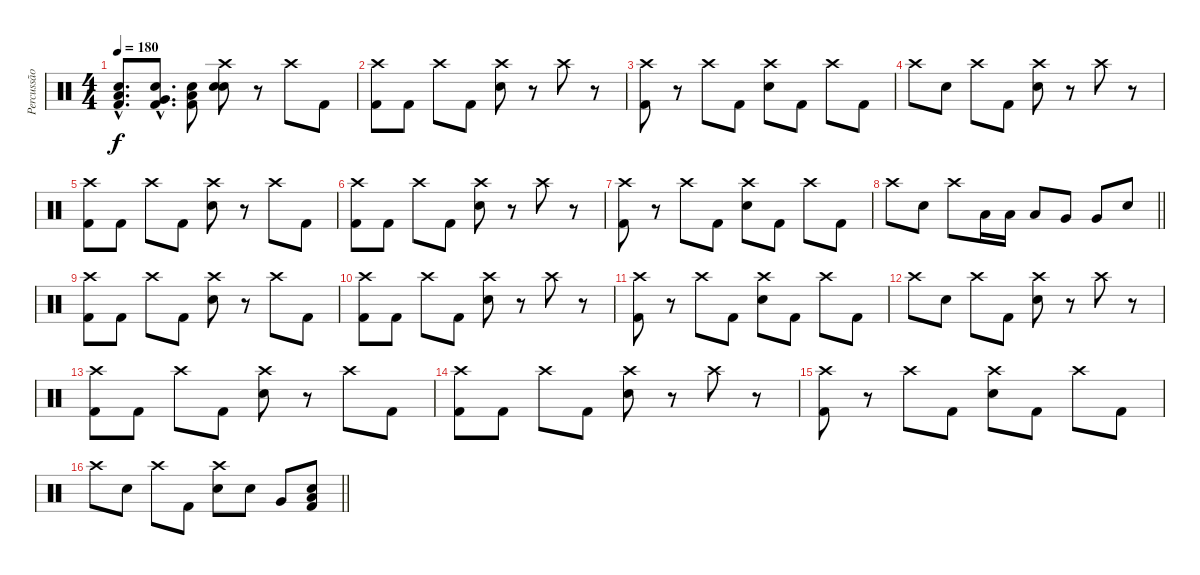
\track ("Percussão" "Percussão") {instrument percussion}
\staff {score}
\articulation defaults
\ts (4 4)
\tempo 180
\clef neutral
\ks c
("Low Tom (hit)"{hac} "Electric Snare (hit)"{hac} "Kick (hit) 2"{hac}).8{d dy f} ("Very Low Tom (hit)"{hac} "Electric Snare (hit)"{hac} "Kick (hit) 2"{hac}).8{d} ("Low Floor Tom (hit)" "Electric Snare (hit)" "Kick (hit) 2").8 ("Crash high (hit)" "Electric Snare (hit)" "Electric Snare (hit)").8 r.8 "Crash high (hit)".8 "Kick (hit) 2".8 |
("Crash high (hit)" "Kick (hit) 2").8 "Kick (hit) 2".8 "Crash high (hit)".8 "Kick (hit) 2".8 ("Crash high (hit)" "Electric Snare (hit)").8 r.8 "Crash high (hit)".8 r.8 |
("Crash high (hit)" "Kick (hit) 2").8 r.8 "Crash high (hit)".8 "Kick (hit) 2".8 ("Crash high (hit)" "Electric Snare (hit)").8 "Kick (hit) 2".8 "Crash high (hit)".8 "Kick (hit) 2".8 |
"Crash high (hit)".8 "Electric Snare (hit)".8 "Crash high (hit)".8 "Kick (hit) 2".8 ("Crash high (hit)" "Electric Snare (hit)").8 r.8 "Crash high (hit)".8 r.8 |
("Crash high (hit)" "Kick (hit) 2").8 "Kick (hit) 2".8 "Crash high (hit)".8 "Kick (hit) 2".8 ("Crash high (hit)" "Electric Snare (hit)").8 r.8 "Crash high (hit)".8 "Kick (hit) 2".8 |
("Crash high (hit)" "Kick (hit) 2").8 "Kick (hit) 2".8 "Crash high (hit)".8 "Kick (hit) 2".8 ("Crash high (hit)" "Electric Snare (hit)").8 r.8 "Crash high (hit)".8 r.8 |
("Crash high (hit)" "Kick (hit) 2").8 r.8 "Crash high (hit)".8 "Kick (hit) 2".8 ("Crash high (hit)" "Electric Snare (hit)").8 "Kick (hit) 2".8 "Crash high (hit)".8 "Kick (hit) 2".8 |
\barLineRight lightlight "Crash high (hit)".8 "Electric Snare (hit)".8 "Crash high (hit)".8 "Low Tom (hit)".16 "Low Tom (hit)".16 "Low Tom (hit)".8 "Very Low Tom (hit)".8 "Very Low Tom (hit)".8 "Electric Snare (hit)".8
|
("Crash high (hit)" "Kick (hit) 2").8 "Kick (hit) 2".8 "Crash high (hit)".8 "Kick (hit) 2".8 ("Crash high (hit)" "Electric Snare (hit)").8 r.8 "Crash high (hit)".8 "Kick (hit) 2".8 |
("Crash high (hit)" "Kick (hit) 2").8 "Kick (hit) 2".8 "Crash high (hit)".8 "Kick (hit) 2".8 ("Crash high (hit)" "Electric Snare (hit)").8 r.8 "Crash high (hit)".8 r.8 |
("Crash high (hit)" "Kick (hit) 2").8 r.8 "Crash high (hit)".8 "Kick (hit) 2".8 ("Crash high (hit)" "Electric Snare (hit)").8 "Kick (hit) 2".8 "Crash high (hit)".8 "Kick (hit) 2".8 |
"Crash high (hit)".8 "Electric Snare (hit)".8 "Crash high (hit)".8 "Kick (hit) 2".8 ("Crash high (hit)" "Electric Snare (hit)").8 r.8 "Crash high (hit)".8 r.8 |
("Crash high (hit)" "Kick (hit) 2").8 "Kick (hit) 2".8 "Crash high (hit)".8 "Kick (hit) 2".8 ("Crash high (hit)" "Electric Snare (hit)").8 r.8 "Crash high (hit)".8 "Kick (hit) 2".8 |
("Crash high (hit)" "Kick (hit) 2").8 "Kick (hit) 2".8 "Crash high (hit)".8 "Kick (hit) 2".8 ("Crash high (hit)" "Electric Snare (hit)").8 r.8 "Crash high (hit)".8 r.8 |
("Crash high (hit)" "Kick (hit) 2").8 r.8 "Crash high (hit)".8 "Kick (hit) 2".8 ("Crash high (hit)" "Electric Snare (hit)").8 "Kick (hit) 2".8 "Crash high (hit)".8 "Kick (hit) 2".8 |
\barLineRight lightlight "Crash high (hit)".8 "Electric Snare (hit)".8 "Crash high (hit)".8 "Kick (hit) 2".8
("Crash high (hit)" "Electric Snare (hit)").8 "Electric Snare (hit)".8 "Very Low Tom (hit)".8 ("Low Tom (hit)" "Electric Snare (hit)" "Kick (hit) 2").8
